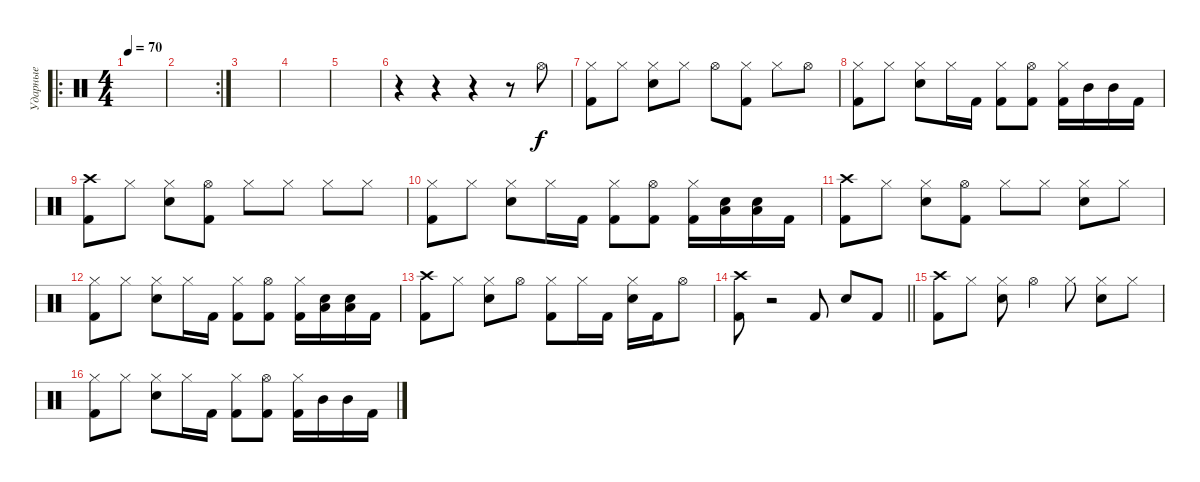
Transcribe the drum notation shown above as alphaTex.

\track ("Ударные" "Ударные") {instrument percussion}
\staff {score}
\articulation defaults
\ro
\ts (4 4)
\tempo 70
\clef neutral
\ks c
|
\rc 2
|
|
|
|
r.4 r.4 r.4 r.8 "Hi-Hat (open)".8 |
("Hi-Hat (closed)" "Kick (hit) 2").8 "Hi-Hat (closed)".8 ("Hi-Hat (closed)" "Electric Snare (hit)").8 "Hi-Hat (closed)".8 "Hi-Hat (open)".8 ("Hi-Hat (closed)" "Kick (hit) 2").8 "Hi-Hat (closed)".8 "Hi-Hat (open)".8 |
("Hi-Hat (closed)" "Kick (hit) 2").8 "Hi-Hat (closed)".8 ("Hi-Hat (closed)" "Electric Snare (hit)").8 "Hi-Hat (closed)".16 "Kick (hit) 2".16 ("Hi-Hat (closed)" "Kick (hit) 2").8 ("Hi-Hat (open)" "Kick (hit) 2").8 ("Hi-Hat (closed)" "Kick (hit) 2").16 "Mid Tom (hit)".16 "Mid Tom (hit)".16 "Kick (hit) 2".16 |
("Kick (hit) 2" "Crash high (hit)").8 "Hi-Hat (closed)".8 ("Hi-Hat (closed)" "Electric Snare (hit)").8 ("Hi-Hat (open)" "Kick (hit) 2").8 "Hi-Hat (closed)".8 "Hi-Hat (closed)".8 "Hi-Hat (closed)".8 "Hi-Hat (closed)".8 |
("Hi-Hat (closed)" "Kick (hit) 2").8 "Hi-Hat (closed)".8 ("Hi-Hat (closed)" "Electric Snare (hit)").8 "Hi-Hat (closed)".16 "Kick (hit) 2".16 ("Hi-Hat (closed)" "Kick (hit) 2").8 ("Kick (hit) 2" "Hi-Hat (open)").8 ("Kick (hit) 2" "Hi-Hat (closed)").16 ("Electric Snare (hit)" "Low Floor Tom (hit)").16 ("Electric Snare (hit)" "Low Floor Tom (hit)").16 "Kick (hit) 2".16 |
("Kick (hit) 2" "Crash high (hit)").8 "Hi-Hat (closed)".8 ("Hi-Hat (closed)" "Electric Snare (hit)").8 ("Kick (hit) 2" "Hi-Hat (open)").8 "Hi-Hat (closed)".8 "Hi-Hat (closed)".8 ("Hi-Hat (closed)" "Electric Snare (hit)").8 "Hi-Hat (closed)".8 |
("Hi-Hat (closed)" "Kick (hit) 2").8 "Hi-Hat (closed)".8 ("Hi-Hat (closed)" "Electric Snare (hit)").8 "Hi-Hat (closed)".16 "Kick (hit) 2".16 ("Hi-Hat (closed)" "Kick (hit) 2").8 ("Kick (hit) 2" "Hi-Hat (open)").8 ("Kick (hit) 2" "Hi-Hat (closed)").16 ("Electric Snare (hit)" "Low Floor Tom (hit)").16 ("Electric Snare (hit)" "Low Floor Tom (hit)").16 "Kick (hit) 2".16 |
("Kick (hit) 2" "Crash high (hit)").8 "Hi-Hat (closed)".8 ("Hi-Hat (closed)" "Electric Snare (hit)").8 "Hi-Hat (open)".8 ("Hi-Hat (closed)" "Kick (hit) 2").8 "Hi-Hat (closed)".16 "Kick (hit) 2".16 ("Hi-Hat (closed)" "Electric Snare (hit)").16 "Kick (hit) 2".16 "Hi-Hat (open)".8 |
\barLineRight lightlight
("Kick (hit) 2" "Crash high (hit)").8 r.2 "Kick (hit) 2".8 "Electric Snare (hit)".8 "Kick (hit) 2".8 |
\section ("" "")
("Kick (hit) 2" "Crash high (hit)").8 "Hi-Hat (closed)".8 ("Hi-Hat (closed)" "Electric Snare (hit)").8 "Hi-Hat (open)".4 "Hi-Hat (closed)".8 ("Hi-Hat (closed)" "Electric Snare (hit)").8 "Hi-Hat (closed)".8 |
("Hi-Hat (closed)" "Kick (hit) 2").8 "Hi-Hat (closed)".8 ("Hi-Hat (closed)" "Electric Snare (hit)").8 "Hi-Hat (closed)".16 "Kick (hit) 2".16 ("Hi-Hat (closed)" "Kick (hit) 2").8 ("Hi-Hat (open)" "Kick (hit) 2").8 ("Hi-Hat (closed)" "Kick (hit) 2").16 "Mid Tom (hit)".16 "Mid Tom (hit)".16 "Kick (hit) 2".16
